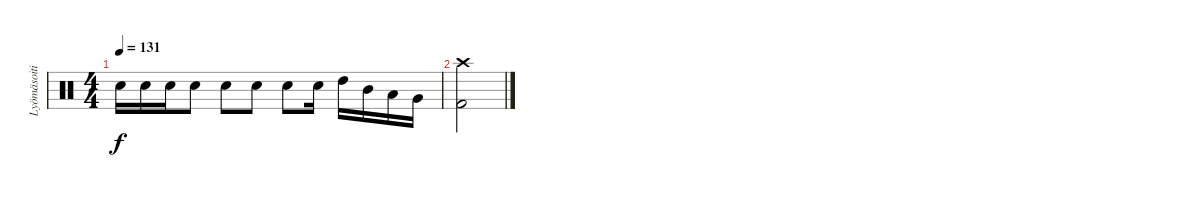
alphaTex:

\track ("Lyömäsoitin" "Lyömäsoiti") {instrument percussion}
\staff {score}
\articulation defaults
\ts (4 4)
\tempo 131
\clef neutral
\ks c "Electric Snare (hit)".16{dy f} "Electric Snare (hit)".16 "Electric Snare (hit)".16 "Electric Snare (hit)".8 "Electric Snare (hit)".8 "Electric Snare (hit)".8 "Electric Snare (hit)".8 "Electric Snare (hit)".16 "High Tom (hit)".16 "Mid Tom (hit)".16 "Low Tom (hit)".16 "Very Low Tom (hit)".16
|
("Crash high (hit)" "Kick (hit) 2").2
